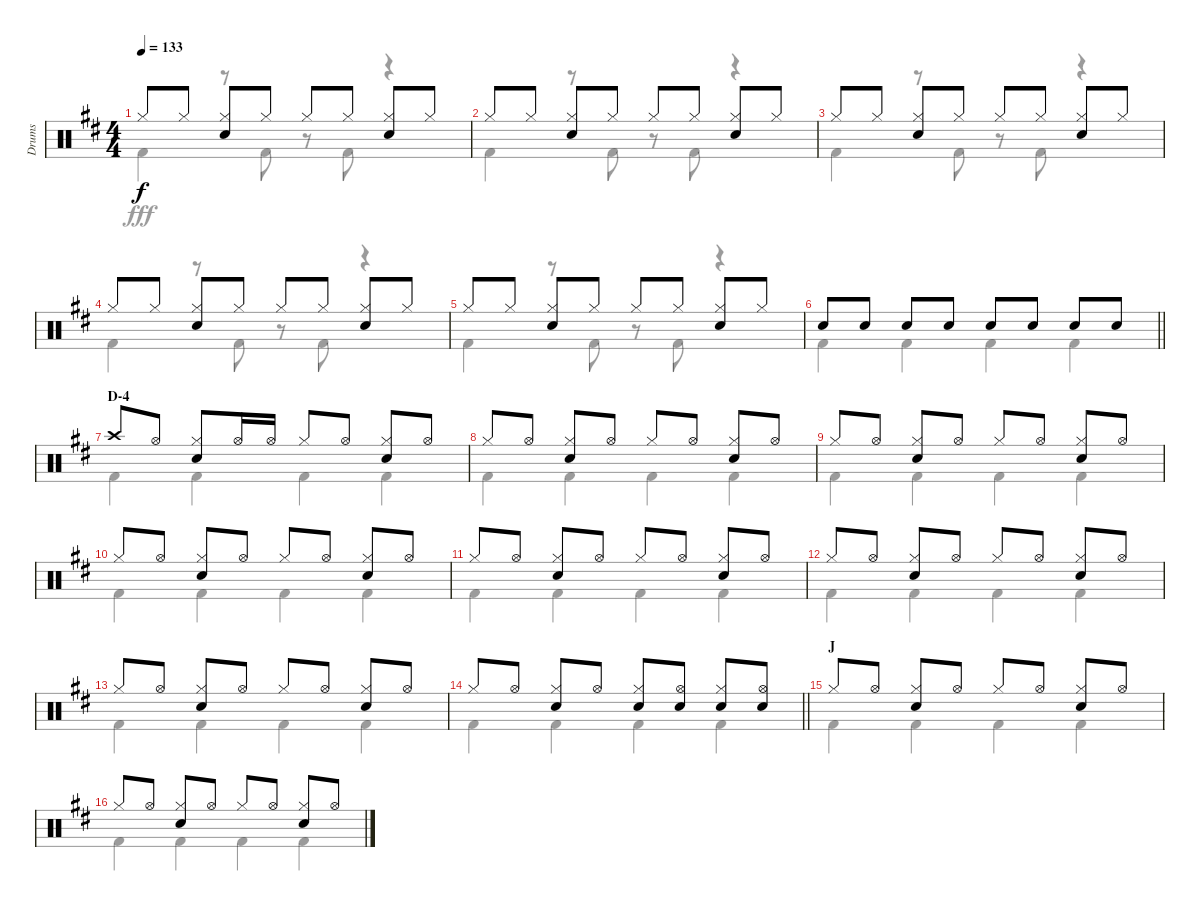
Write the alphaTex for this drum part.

\track ("Drums" "Drums") {instrument percussion}
\staff {score}
\articulation defaults
\voice
\ts (4 4)
\tempo 133
\clef neutral
\ks d "Hi-Hat (closed)".8{dy f} "Hi-Hat (closed)".8
("Hi-Hat (closed)" "Snare (hit) 2").8 "Hi-Hat (closed)".8 "Hi-Hat (closed)".8 "Hi-Hat (closed)".8 ("Hi-Hat (closed)" "Snare (hit) 2").8 "Hi-Hat (closed)".8 |
"Hi-Hat (closed)".8 "Hi-Hat (closed)".8 ("Hi-Hat (closed)" "Snare (hit) 2").8 "Hi-Hat (closed)".8 "Hi-Hat (closed)".8 "Hi-Hat (closed)".8 ("Hi-Hat (closed)" "Snare (hit) 2").8 "Hi-Hat (closed)".8 |
"Hi-Hat (closed)".8 "Hi-Hat (closed)".8 ("Hi-Hat (closed)" "Snare (hit) 2").8 "Hi-Hat (closed)".8 "Hi-Hat (closed)".8 "Hi-Hat (closed)".8 ("Hi-Hat (closed)" "Snare (hit) 2").8 "Hi-Hat (closed)".8 |
"Hi-Hat (closed)".8 "Hi-Hat (closed)".8 ("Hi-Hat (closed)" "Snare (hit) 2").8 "Hi-Hat (closed)".8 "Hi-Hat (closed)".8 "Hi-Hat (closed)".8 ("Hi-Hat (closed)" "Snare (hit) 2").8 "Hi-Hat (closed)".8 |
"Hi-Hat (closed)".8 "Hi-Hat (closed)".8 ("Hi-Hat (closed)" "Snare (hit) 2").8 "Hi-Hat (closed)".8 "Hi-Hat (closed)".8 "Hi-Hat (closed)".8 ("Hi-Hat (closed)" "Snare (hit) 2").8 "Hi-Hat (closed)".8 |
\barLineRight lightlight "Snare (hit) 2".8 "Snare (hit) 2".8 "Snare (hit) 2".8 "Snare (hit) 2".8 "Snare (hit) 2".8 "Snare (hit) 2".8 "Snare (hit) 2".8 "Snare (hit) 2".8
|
\section ("" "D-4")
"Crash high (hit)".8 "Hi-Hat (open)".8 ("Hi-Hat (closed)" "Snare (hit) 2").8 "Hi-Hat (open)".16 "Hi-Hat (open)".16 "Hi-Hat (closed)".8 "Hi-Hat (open)".8 ("Hi-Hat (closed)" "Snare (hit) 2").8 "Hi-Hat (open)".8 |
"Hi-Hat (closed)".8 "Hi-Hat (open)".8 ("Hi-Hat (closed)" "Snare (hit) 2").8 "Hi-Hat (open)".8 "Hi-Hat (closed)".8 "Hi-Hat (open)".8 ("Hi-Hat (closed)" "Snare (hit) 2").8 "Hi-Hat (open)".8 |
"Hi-Hat (closed)".8 "Hi-Hat (open)".8 ("Hi-Hat (closed)" "Snare (hit) 2").8 "Hi-Hat (open)".8 "Hi-Hat (closed)".8 "Hi-Hat (open)".8 ("Hi-Hat (closed)" "Snare (hit) 2").8 "Hi-Hat (open)".8 |
"Hi-Hat (closed)".8 "Hi-Hat (open)".8 ("Hi-Hat (closed)" "Snare (hit) 2").8 "Hi-Hat (open)".8 "Hi-Hat (closed)".8 "Hi-Hat (open)".8 ("Hi-Hat (closed)" "Snare (hit) 2").8 "Hi-Hat (open)".8 |
"Hi-Hat (closed)".8 "Hi-Hat (open)".8 ("Hi-Hat (closed)" "Snare (hit) 2").8 "Hi-Hat (open)".8 "Hi-Hat (closed)".8 "Hi-Hat (open)".8 ("Hi-Hat (closed)" "Snare (hit) 2").8 "Hi-Hat (open)".8 |
"Hi-Hat (closed)".8 "Hi-Hat (open)".8 ("Hi-Hat (closed)" "Snare (hit) 2").8 "Hi-Hat (open)".8 "Hi-Hat (closed)".8 "Hi-Hat (open)".8 ("Hi-Hat (closed)" "Snare (hit) 2").8 "Hi-Hat (open)".8 |
"Hi-Hat (closed)".8 "Hi-Hat (open)".8 ("Hi-Hat (closed)" "Snare (hit) 2").8 "Hi-Hat (open)".8 "Hi-Hat (closed)".8 "Hi-Hat (open)".8 ("Hi-Hat (closed)" "Snare (hit) 2").8 "Hi-Hat (open)".8 |
\barLineRight lightlight "Hi-Hat (closed)".8 "Hi-Hat (open)".8
("Hi-Hat (closed)" "Snare (hit) 2").8 "Hi-Hat (open)".8 ("Hi-Hat (closed)" "Snare (hit) 2").8 ("Hi-Hat (open)" "Snare (hit) 2").8 ("Hi-Hat (closed)" "Snare (hit) 2").8 ("Hi-Hat (open)" "Snare (hit) 2").8 |
\section ("" "J")
"Hi-Hat (closed)".8 "Hi-Hat (open)".8 ("Hi-Hat (closed)" "Snare (hit) 2").8 "Hi-Hat (open)".8 "Hi-Hat (closed)".8 "Hi-Hat (open)".8 ("Hi-Hat (closed)" "Snare (hit) 2").8 "Hi-Hat (open)".8 |
"Hi-Hat (closed)".8 "Hi-Hat (open)".8 ("Hi-Hat (closed)" "Snare (hit) 2").8 "Hi-Hat (open)".8 "Hi-Hat (closed)".8 "Hi-Hat (open)".8 ("Hi-Hat (closed)" "Snare (hit) 2").8 "Hi-Hat (open)".8
\voice
\clef neutral
\ottava regular
\simile none
\ks d "Kick (hit) 2".4{dy fff}
r.8 "Kick (hit) 2".8 r.8 "Kick (hit) 2".8 r.4 |
"Kick (hit) 2".4 r.8 "Kick (hit) 2".8 r.8 "Kick (hit) 2".8 r.4 |
"Kick (hit) 2".4 r.8 "Kick (hit) 2".8 r.8 "Kick (hit) 2".8 r.4 |
"Kick (hit) 2".4 r.8 "Kick (hit) 2".8 r.8 "Kick (hit) 2".8 r.4 |
"Kick (hit) 2".4 r.8 "Kick (hit) 2".8 r.8 "Kick (hit) 2".8 r.4 |
\barLineRight lightlight "Kick (hit) 2".4 "Kick (hit) 2".4 "Kick (hit) 2".4 "Kick (hit) 2".4
|
"Kick (hit) 2".4 "Kick (hit) 2".4 "Kick (hit) 2".4 "Kick (hit) 2".4 |
"Kick (hit) 2".4 "Kick (hit) 2".4 "Kick (hit) 2".4 "Kick (hit) 2".4 |
"Kick (hit) 2".4 "Kick (hit) 2".4 "Kick (hit) 2".4 "Kick (hit) 2".4 |
"Kick (hit) 2".4 "Kick (hit) 2".4 "Kick (hit) 2".4 "Kick (hit) 2".4 |
"Kick (hit) 2".4 "Kick (hit) 2".4 "Kick (hit) 2".4 "Kick (hit) 2".4 |
"Kick (hit) 2".4 "Kick (hit) 2".4 "Kick (hit) 2".4 "Kick (hit) 2".4 |
"Kick (hit) 2".4 "Kick (hit) 2".4 "Kick (hit) 2".4 "Kick (hit) 2".4 |
\barLineRight lightlight "Kick (hit) 2".4 "Kick (hit) 2".4 "Kick (hit) 2".4 "Kick (hit) 2".4
|
"Kick (hit) 2".4 "Kick (hit) 2".4 "Kick (hit) 2".4 "Kick (hit) 2".4 |
"Kick (hit) 2".4 "Kick (hit) 2".4 "Kick (hit) 2".4 "Kick (hit) 2".4
